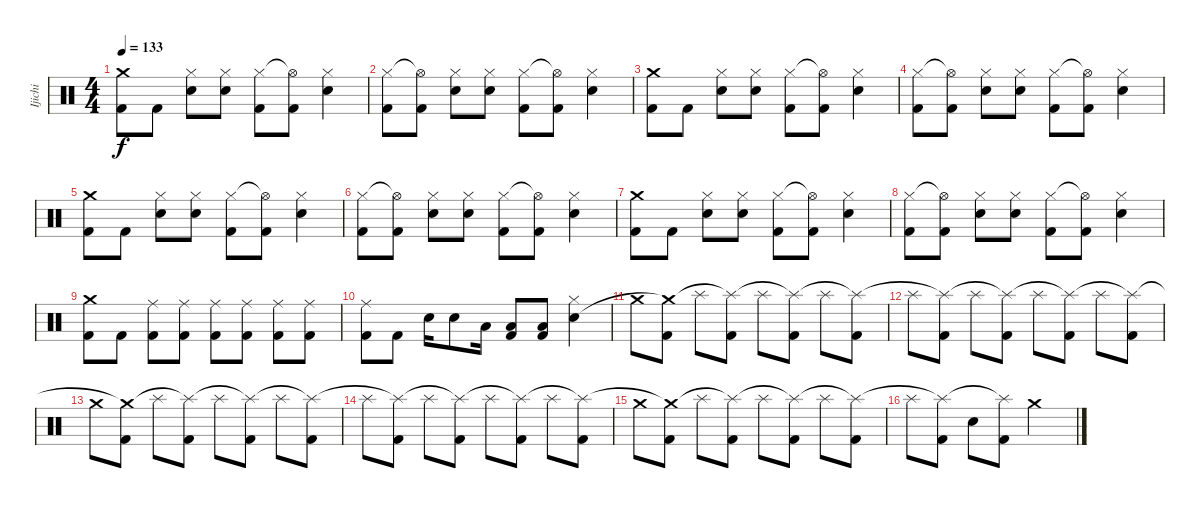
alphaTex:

\track ("Ijichi" "Ijichi") {instrument percussion}
\staff {score}
\articulation defaults
\ts (4 4)
\tempo 133
\clef neutral
\ks c
("Kick (hit) 2" "Crash medium (hit)").8{dy f} "Kick (hit) 2".8 ("Hi-Hat (closed)" "Electric Snare (hit)").8 ("Hi-Hat (closed)" "Electric Snare (hit)").8 ("Kick (hit) 2" "Hi-Hat (closed)").8 ("Kick (hit) 2" "Hi-Hat (open)"{t}).8 ("Hi-Hat (closed)" "Electric Snare (hit)").4 |
("Kick (hit) 2" "Hi-Hat (closed)").8 ("Kick (hit) 2" "Hi-Hat (open)"{t}).8 ("Hi-Hat (closed)" "Electric Snare (hit)").8 ("Hi-Hat (closed)" "Electric Snare (hit)").8 ("Kick (hit) 2" "Hi-Hat (closed)").8 ("Kick (hit) 2" "Hi-Hat (open)"{t}).8 ("Hi-Hat (closed)" "Electric Snare (hit)").4 |
("Kick (hit) 2" "Crash medium (hit)").8 "Kick (hit) 2".8 ("Hi-Hat (closed)" "Electric Snare (hit)").8 ("Hi-Hat (closed)" "Electric Snare (hit)").8 ("Kick (hit) 2" "Hi-Hat (closed)").8 ("Kick (hit) 2" "Hi-Hat (open)"{t}).8 ("Hi-Hat (closed)" "Electric Snare (hit)").4 |
("Kick (hit) 2" "Hi-Hat (closed)").8 ("Kick (hit) 2" "Hi-Hat (open)"{t}).8 ("Hi-Hat (closed)" "Electric Snare (hit)").8 ("Hi-Hat (closed)" "Electric Snare (hit)").8 ("Kick (hit) 2" "Hi-Hat (closed)").8 ("Kick (hit) 2" "Hi-Hat (open)"{t}).8 ("Hi-Hat (closed)" "Electric Snare (hit)").4 |
("Kick (hit) 2" "Crash medium (hit)").8 "Kick (hit) 2".8 ("Hi-Hat (closed)" "Electric Snare (hit)").8 ("Hi-Hat (closed)" "Electric Snare (hit)").8 ("Kick (hit) 2" "Hi-Hat (closed)").8 ("Kick (hit) 2" "Hi-Hat (open)"{t}).8 ("Hi-Hat (closed)" "Electric Snare (hit)").4 |
("Kick (hit) 2" "Hi-Hat (closed)").8 ("Kick (hit) 2" "Hi-Hat (open)"{t}).8 ("Hi-Hat (closed)" "Electric Snare (hit)").8 ("Hi-Hat (closed)" "Electric Snare (hit)").8 ("Kick (hit) 2" "Hi-Hat (closed)").8 ("Kick (hit) 2" "Hi-Hat (open)"{t}).8 ("Hi-Hat (closed)" "Electric Snare (hit)").4 |
("Kick (hit) 2" "Crash medium (hit)").8 "Kick (hit) 2".8 ("Hi-Hat (closed)" "Electric Snare (hit)").8 ("Hi-Hat (closed)" "Electric Snare (hit)").8 ("Kick (hit) 2" "Hi-Hat (closed)").8 ("Kick (hit) 2" "Hi-Hat (open)"{t}).8 ("Hi-Hat (closed)" "Electric Snare (hit)").4 |
("Kick (hit) 2" "Hi-Hat (closed)").8 ("Kick (hit) 2" "Hi-Hat (open)"{t}).8 ("Hi-Hat (closed)" "Electric Snare (hit)").8 ("Hi-Hat (closed)" "Electric Snare (hit)").8 ("Kick (hit) 2" "Hi-Hat (closed)").8 ("Kick (hit) 2" "Hi-Hat (open)"{t}).8 ("Hi-Hat (closed)" "Electric Snare (hit)").4 |
("Kick (hit) 2" "Crash medium (hit)").8 "Kick (hit) 2".8 ("Kick (hit) 2" "Ride (middle)").8 ("Kick (hit) 2" "Ride (middle)").8 ("Kick (hit) 2" "Ride (middle)").8 ("Kick (hit) 2" "Ride (middle)").8 ("Kick (hit) 2" "Ride (middle)").8 ("Kick (hit) 2" "Ride (middle)").8 |
("Kick (hit) 2" "Ride (middle)").8 "Kick (hit) 2".8 "Electric Snare (hit)".16 "Electric Snare (hit)".8 "Low Floor Tom (hit)".16 ("Kick (hit) 2" "Low Floor Tom (hit)").8 ("Kick (hit) 2" "Low Floor Tom (hit)").8 ("Hi-Hat (closed)" "Electric Snare (hit)").4 |
"Crash medium (hit)".8 ("Kick (hit) 2" "Crash medium (hit)"{t}).8 "Splash (hit)".8 ("Kick (hit) 2" "Splash (hit)"{t}).8 "Splash (hit)".8 ("Kick (hit) 2" "Splash (hit)"{t}).8 "Splash (hit)".8 ("Kick (hit) 2" "Splash (hit)"{t}).8 |
"Splash (hit)".8 ("Kick (hit) 2" "Splash (hit)"{t}).8 "Splash (hit)".8 ("Kick (hit) 2" "Splash (hit)"{t}).8 "Splash (hit)".8 ("Kick (hit) 2" "Splash (hit)"{t}).8 "Splash (hit)".8 ("Kick (hit) 2" "Splash (hit)"{t}).8 |
"Crash medium (hit)".8 ("Kick (hit) 2" "Crash medium (hit)"{t}).8 "Splash (hit)".8 ("Kick (hit) 2" "Splash (hit)"{t}).8 "Splash (hit)".8 ("Kick (hit) 2" "Splash (hit)"{t}).8 "Splash (hit)".8 ("Kick (hit) 2" "Splash (hit)"{t}).8 |
"Splash (hit)".8 ("Kick (hit) 2" "Splash (hit)"{t}).8 "Splash (hit)".8 ("Kick (hit) 2" "Splash (hit)"{t}).8 "Splash (hit)".8 ("Kick (hit) 2" "Splash (hit)"{t}).8 "Splash (hit)".8 ("Kick (hit) 2" "Splash (hit)"{t}).8 |
"Crash medium (hit)".8 ("Kick (hit) 2" "Crash medium (hit)"{t}).8 "Splash (hit)".8 ("Kick (hit) 2" "Splash (hit)"{t}).8 "Splash (hit)".8 ("Kick (hit) 2" "Splash (hit)"{t}).8 "Splash (hit)".8 ("Kick (hit) 2" "Splash (hit)"{t}).8 |
"Splash (hit)".8 ("Kick (hit) 2" "Splash (hit)"{t}).8 "Electric Snare (hit)".8 ("Kick (hit) 2" "Splash (hit)"{t}).8 "Crash medium (hit)".2
